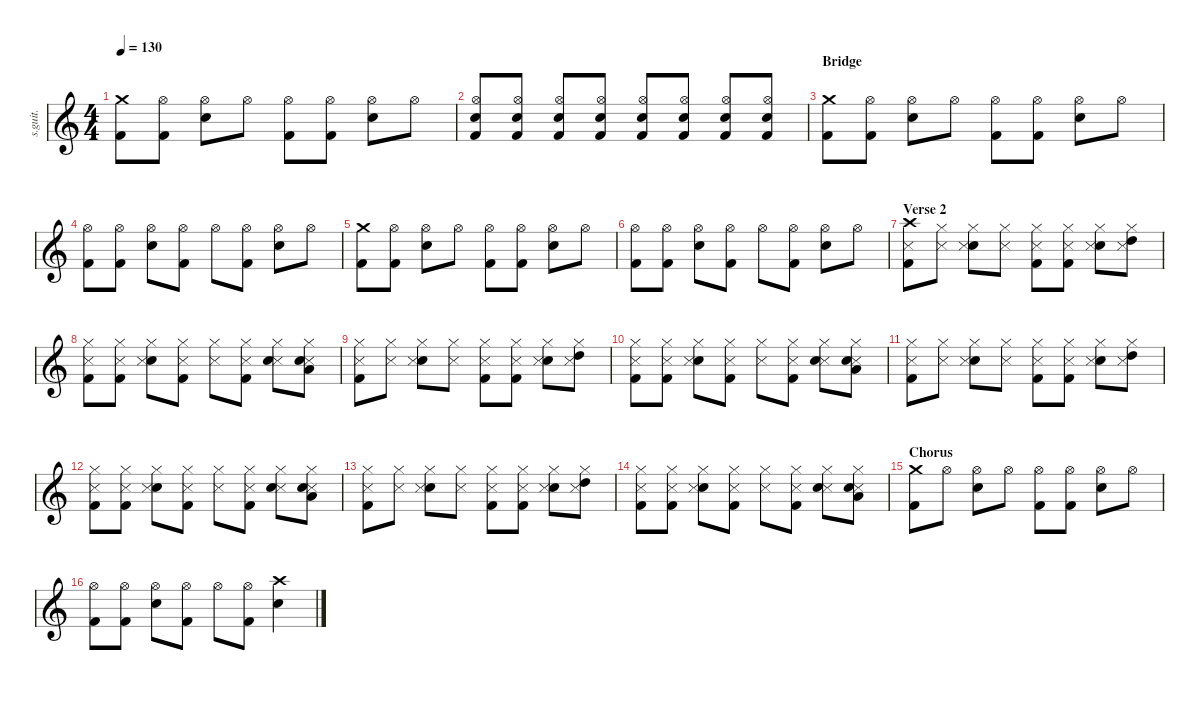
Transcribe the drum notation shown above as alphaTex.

\defaultSystemsLayout 4
\hideDynamics
\bracketExtendMode nobrackets
\track ("Rowntree & Coxon - Drums" "s.guit.") {instrument percussion}
\staff {score}
\articulation defaults
\ts (4 4)
\tempo 130
\clef g2
\ks c
("Crash medium (hit)" "Kick (hit) 2").8{lyrics (0 "") lyrics (1 "") lyrics (2 "") lyrics (3 "") lyrics (4 "") dy f} ("Hi-Hat (open)" "Kick (hit) 2").8{lyrics (0 "") lyrics (1 "") lyrics (2 "") lyrics (3 "") lyrics (4 "")} ("Snare (hit) 2" "Hi-Hat (open)").8{lyrics (0 "") lyrics (1 "") lyrics (2 "") lyrics (3 "") lyrics (4 "")} "Hi-Hat (open)".8{lyrics (0 "") lyrics (1 "") lyrics (2 "") lyrics (3 "") lyrics (4 "")} ("Hi-Hat (open)" "Kick (hit) 2").8{lyrics (0 "") lyrics (1 "") lyrics (2 "") lyrics (3 "") lyrics (4 "")} ("Hi-Hat (open)" "Kick (hit) 2").8{lyrics (0 "") lyrics (1 "") lyrics (2 "") lyrics (3 "") lyrics (4 "")} ("Snare (hit) 2" "Hi-Hat (open)").8{lyrics (0 "") lyrics (1 "") lyrics (2 "") lyrics (3 "") lyrics (4 "")} "Hi-Hat (open)".8{lyrics (0 "") lyrics (1 "") lyrics (2 "") lyrics (3 "") lyrics (4 "")} |
("Snare (hit) 2" "Hi-Hat (open)" "Kick (hit) 2").8{lyrics (0 "") lyrics (1 "") lyrics (2 "") lyrics (3 "") lyrics (4 "") dy mp} ("Snare (hit) 2" "Hi-Hat (open)" "Kick (hit) 2").8{lyrics (0 "") lyrics (1 "") lyrics (2 "") lyrics (3 "") lyrics (4 "")} ("Snare (hit) 2" "Hi-Hat (open)" "Kick (hit) 2").8{lyrics (0 "") lyrics (1 "") lyrics (2 "") lyrics (3 "") lyrics (4 "") dy mf} ("Snare (hit) 2" "Hi-Hat (open)" "Kick (hit) 2").8{lyrics (0 "") lyrics (1 "") lyrics (2 "") lyrics (3 "") lyrics (4 "")} ("Snare (hit) 2" "Hi-Hat (open)" "Kick (hit) 2").8{lyrics (0 "") lyrics (1 "") lyrics (2 "") lyrics (3 "") lyrics (4 "") dy f} ("Snare (hit) 2" "Hi-Hat (open)" "Kick (hit) 2").8{lyrics (0 "") lyrics (1 "") lyrics (2 "") lyrics (3 "") lyrics (4 "")} ("Snare (hit) 2" "Hi-Hat (open)" "Kick (hit) 2").8{lyrics (0 "") lyrics (1 "") lyrics (2 "") lyrics (3 "") lyrics (4 "") dy ff} ("Snare (hit) 2" "Hi-Hat (open)" "Kick (hit) 2").8{lyrics (0 "") lyrics (1 "") lyrics (2 "") lyrics (3 "") lyrics (4 "")} |
\section ("" "Bridge")
("Crash medium (hit)" "Kick (hit) 2").8{lyrics (0 "") lyrics (1 "") lyrics (2 "") lyrics (3 "") lyrics (4 "") dy f} ("Hi-Hat (open)" "Kick (hit) 2").8{lyrics (0 "") lyrics (1 "") lyrics (2 "") lyrics (3 "") lyrics (4 "")} ("Snare (hit) 2" "Hi-Hat (open)").8{lyrics (0 "") lyrics (1 "") lyrics (2 "") lyrics (3 "") lyrics (4 "")} "Hi-Hat (open)".8{lyrics (0 "") lyrics (1 "") lyrics (2 "") lyrics (3 "") lyrics (4 "")} ("Hi-Hat (open)" "Kick (hit) 2").8{lyrics (0 "") lyrics (1 "") lyrics (2 "") lyrics (3 "") lyrics (4 "")} ("Hi-Hat (open)" "Kick (hit) 2").8{lyrics (0 "") lyrics (1 "") lyrics (2 "") lyrics (3 "") lyrics (4 "")} ("Snare (hit) 2" "Hi-Hat (open)").8{lyrics (0 "") lyrics (1 "") lyrics (2 "") lyrics (3 "") lyrics (4 "")} "Hi-Hat (open)".8{lyrics (0 "") lyrics (1 "") lyrics (2 "") lyrics (3 "") lyrics (4 "")} |
("Hi-Hat (open)" "Kick (hit) 2").8{lyrics (0 "") lyrics (1 "") lyrics (2 "") lyrics (3 "") lyrics (4 "")} ("Hi-Hat (open)" "Kick (hit) 2").8{lyrics (0 "") lyrics (1 "") lyrics (2 "") lyrics (3 "") lyrics (4 "")} ("Snare (hit) 2" "Hi-Hat (open)").8{lyrics (0 "") lyrics (1 "") lyrics (2 "") lyrics (3 "") lyrics (4 "")} ("Hi-Hat (open)" "Kick (hit) 2").8{lyrics (0 "") lyrics (1 "") lyrics (2 "") lyrics (3 "") lyrics (4 "")} "Hi-Hat (open)".8{lyrics (0 "") lyrics (1 "") lyrics (2 "") lyrics (3 "") lyrics (4 "")} ("Hi-Hat (open)" "Kick (hit) 2").8{lyrics (0 "") lyrics (1 "") lyrics (2 "") lyrics (3 "") lyrics (4 "")} ("Snare (hit) 2" "Hi-Hat (open)").8{lyrics (0 "") lyrics (1 "") lyrics (2 "") lyrics (3 "") lyrics (4 "")} "Hi-Hat (open)".8{lyrics (0 "") lyrics (1 "") lyrics (2 "") lyrics (3 "") lyrics (4 "")} |
("Crash medium (hit)" "Kick (hit) 2").8{lyrics (0 "") lyrics (1 "") lyrics (2 "") lyrics (3 "") lyrics (4 "")} ("Hi-Hat (open)" "Kick (hit) 2").8{lyrics (0 "") lyrics (1 "") lyrics (2 "") lyrics (3 "") lyrics (4 "")} ("Snare (hit) 2" "Hi-Hat (open)").8{lyrics (0 "") lyrics (1 "") lyrics (2 "") lyrics (3 "") lyrics (4 "")} "Hi-Hat (open)".8{lyrics (0 "") lyrics (1 "") lyrics (2 "") lyrics (3 "") lyrics (4 "")} ("Hi-Hat (open)" "Kick (hit) 2").8{lyrics (0 "") lyrics (1 "") lyrics (2 "") lyrics (3 "") lyrics (4 "")} ("Hi-Hat (open)" "Kick (hit) 2").8{lyrics (0 "") lyrics (1 "") lyrics (2 "") lyrics (3 "") lyrics (4 "")} ("Snare (hit) 2" "Hi-Hat (open)").8{lyrics (0 "") lyrics (1 "") lyrics (2 "") lyrics (3 "") lyrics (4 "")} "Hi-Hat (open)".8{lyrics (0 "") lyrics (1 "") lyrics (2 "") lyrics (3 "") lyrics (4 "")} |
("Hi-Hat (open)" "Kick (hit) 2").8{lyrics (0 "") lyrics (1 "") lyrics (2 "") lyrics (3 "") lyrics (4 "")} ("Hi-Hat (open)" "Kick (hit) 2").8{lyrics (0 "") lyrics (1 "") lyrics (2 "") lyrics (3 "") lyrics (4 "")} ("Snare (hit) 2" "Hi-Hat (open)").8{lyrics (0 "") lyrics (1 "") lyrics (2 "") lyrics (3 "") lyrics (4 "")} ("Hi-Hat (open)" "Kick (hit) 2").8{lyrics (0 "") lyrics (1 "") lyrics (2 "") lyrics (3 "") lyrics (4 "")} "Hi-Hat (open)".8{lyrics (0 "") lyrics (1 "") lyrics (2 "") lyrics (3 "") lyrics (4 "")} ("Hi-Hat (open)" "Kick (hit) 2").8{lyrics (0 "") lyrics (1 "") lyrics (2 "") lyrics (3 "") lyrics (4 "")} ("Snare (hit) 2" "Hi-Hat (open)").8{lyrics (0 "") lyrics (1 "") lyrics (2 "") lyrics (3 "") lyrics (4 "")} "Hi-Hat (open)".8{lyrics (0 "") lyrics (1 "") lyrics (2 "") lyrics (3 "") lyrics (4 "")} |
\section ("" "Verse 2")
("Kick (hit) 2" "Snare (side stick) 3" "Crash high (hit)").8{lyrics (0 "") lyrics (1 "") lyrics (2 "") lyrics (3 "") lyrics (4 "")} ("Snare (side stick) 3" "Hi-Hat (closed)").8{lyrics (0 "") lyrics (1 "") lyrics (2 "") lyrics (3 "") lyrics (4 "")} ("Snare (hit) 2" "Snare (side stick) 3" "Hi-Hat (closed)").8{lyrics (0 "") lyrics (1 "") lyrics (2 "") lyrics (3 "") lyrics (4 "")} ("Snare (side stick) 3" "Hi-Hat (closed)").8{lyrics (0 "") lyrics (1 "") lyrics (2 "") lyrics (3 "") lyrics (4 "")} ("Kick (hit) 2" "Snare (side stick) 3" "Hi-Hat (closed)").8{lyrics (0 "") lyrics (1 "") lyrics (2 "") lyrics (3 "") lyrics (4 "")} ("Kick (hit) 2" "Snare (side stick) 3" "Hi-Hat (closed)").8{lyrics (0 "") lyrics (1 "") lyrics (2 "") lyrics (3 "") lyrics (4 "")} ("Snare (hit) 2" "Snare (side stick) 3" "Hi-Hat (closed)").8{lyrics (0 "") lyrics (1 "") lyrics (2 "") lyrics (3 "") lyrics (4 "")} ("High Tom (hit)" "Snare (side stick) 3" "Hi-Hat (closed)").8{lyrics (0 "") lyrics (1 "") lyrics (2 "") lyrics (3 "") lyrics (4 "")} |
("Kick (hit) 2" "Snare (side stick) 3" "Hi-Hat (closed)").8{lyrics (0 "") lyrics (1 "") lyrics (2 "") lyrics (3 "") lyrics (4 "")} ("Kick (hit) 2" "Snare (side stick) 3" "Hi-Hat (closed)").8{lyrics (0 "") lyrics (1 "") lyrics (2 "") lyrics (3 "") lyrics (4 "")} ("Snare (hit) 2" "Snare (side stick) 3" "Hi-Hat (closed)").8{lyrics (0 "") lyrics (1 "") lyrics (2 "") lyrics (3 "") lyrics (4 "")} ("Kick (hit) 2" "Snare (side stick) 3" "Hi-Hat (closed)").8{lyrics (0 "") lyrics (1 "") lyrics (2 "") lyrics (3 "") lyrics (4 "")} ("Snare (side stick) 3" "Hi-Hat (closed)").8{lyrics (0 "") lyrics (1 "") lyrics (2 "") lyrics (3 "") lyrics (4 "")} ("Kick (hit) 2" "Snare (side stick) 3" "Hi-Hat (closed)").8{lyrics (0 "") lyrics (1 "") lyrics (2 "") lyrics (3 "") lyrics (4 "")} ("Snare (side stick) 3" "Snare (hit) 2" "Hi-Hat (closed)").8{lyrics (0 "") lyrics (1 "") lyrics (2 "") lyrics (3 "") lyrics (4 "")} ("Snare (side stick) 3" "Snare (hit) 2" "Low Floor Tom (hit)" "Hi-Hat (closed)").8{lyrics (0 "") lyrics (1 "") lyrics (2 "") lyrics (3 "") lyrics (4 "")} |
("Kick (hit) 2" "Snare (side stick) 3" "Hi-Hat (closed)").8{lyrics (0 "") lyrics (1 "") lyrics (2 "") lyrics (3 "") lyrics (4 "")} ("Snare (side stick) 3" "Hi-Hat (closed)").8{lyrics (0 "") lyrics (1 "") lyrics (2 "") lyrics (3 "") lyrics (4 "")} ("Snare (hit) 2" "Snare (side stick) 3" "Hi-Hat (closed)").8{lyrics (0 "") lyrics (1 "") lyrics (2 "") lyrics (3 "") lyrics (4 "")} ("Snare (side stick) 3" "Hi-Hat (closed)").8{lyrics (0 "") lyrics (1 "") lyrics (2 "") lyrics (3 "") lyrics (4 "")} ("Kick (hit) 2" "Snare (side stick) 3" "Hi-Hat (closed)").8{lyrics (0 "") lyrics (1 "") lyrics (2 "") lyrics (3 "") lyrics (4 "")} ("Kick (hit) 2" "Snare (side stick) 3" "Hi-Hat (closed)").8{lyrics (0 "") lyrics (1 "") lyrics (2 "") lyrics (3 "") lyrics (4 "")} ("Snare (hit) 2" "Snare (side stick) 3" "Hi-Hat (closed)").8{lyrics (0 "") lyrics (1 "") lyrics (2 "") lyrics (3 "") lyrics (4 "")} ("High Tom (hit)" "Snare (side stick) 3" "Hi-Hat (closed)").8{lyrics (0 "") lyrics (1 "") lyrics (2 "") lyrics (3 "") lyrics (4 "")} |
("Kick (hit) 2" "Snare (side stick) 3" "Hi-Hat (closed)").8{lyrics (0 "") lyrics (1 "") lyrics (2 "") lyrics (3 "") lyrics (4 "")} ("Kick (hit) 2" "Snare (side stick) 3" "Hi-Hat (closed)").8{lyrics (0 "") lyrics (1 "") lyrics (2 "") lyrics (3 "") lyrics (4 "")} ("Snare (hit) 2" "Snare (side stick) 3" "Hi-Hat (closed)").8{lyrics (0 "") lyrics (1 "") lyrics (2 "") lyrics (3 "") lyrics (4 "")} ("Kick (hit) 2" "Snare (side stick) 3" "Hi-Hat (closed)").8{lyrics (0 "") lyrics (1 "") lyrics (2 "") lyrics (3 "") lyrics (4 "")} ("Snare (side stick) 3" "Hi-Hat (closed)").8{lyrics (0 "") lyrics (1 "") lyrics (2 "") lyrics (3 "") lyrics (4 "")} ("Kick (hit) 2" "Snare (side stick) 3" "Hi-Hat (closed)").8{lyrics (0 "") lyrics (1 "") lyrics (2 "") lyrics (3 "") lyrics (4 "")} ("Snare (side stick) 3" "Snare (hit) 2" "Hi-Hat (closed)").8{lyrics (0 "") lyrics (1 "") lyrics (2 "") lyrics (3 "") lyrics (4 "")} ("Snare (side stick) 3" "Snare (hit) 2" "Low Floor Tom (hit)" "Hi-Hat (closed)").8{lyrics (0 "") lyrics (1 "") lyrics (2 "") lyrics (3 "") lyrics (4 "")} |
("Kick (hit) 2" "Snare (side stick) 3" "Hi-Hat (closed)").8{lyrics (0 "") lyrics (1 "") lyrics (2 "") lyrics (3 "") lyrics (4 "")} ("Snare (side stick) 3" "Hi-Hat (closed)").8{lyrics (0 "") lyrics (1 "") lyrics (2 "") lyrics (3 "") lyrics (4 "")} ("Snare (hit) 2" "Snare (side stick) 3" "Hi-Hat (closed)").8{lyrics (0 "") lyrics (1 "") lyrics (2 "") lyrics (3 "") lyrics (4 "")} ("Snare (side stick) 3" "Hi-Hat (closed)").8{lyrics (0 "") lyrics (1 "") lyrics (2 "") lyrics (3 "") lyrics (4 "")} ("Kick (hit) 2" "Snare (side stick) 3" "Hi-Hat (closed)").8{lyrics (0 "") lyrics (1 "") lyrics (2 "") lyrics (3 "") lyrics (4 "")} ("Kick (hit) 2" "Snare (side stick) 3" "Hi-Hat (closed)").8{lyrics (0 "") lyrics (1 "") lyrics (2 "") lyrics (3 "") lyrics (4 "")} ("Snare (hit) 2" "Snare (side stick) 3" "Hi-Hat (closed)").8{lyrics (0 "") lyrics (1 "") lyrics (2 "") lyrics (3 "") lyrics (4 "")} ("Snare (side stick) 3" "Hi-Hat (closed)" "High Tom (hit)").8{lyrics (0 "") lyrics (1 "") lyrics (2 "") lyrics (3 "") lyrics (4 "")} |
("Kick (hit) 2" "Snare (side stick) 3" "Hi-Hat (closed)").8{lyrics (0 "") lyrics (1 "") lyrics (2 "") lyrics (3 "") lyrics (4 "")} ("Kick (hit) 2" "Snare (side stick) 3" "Hi-Hat (closed)").8{lyrics (0 "") lyrics (1 "") lyrics (2 "") lyrics (3 "") lyrics (4 "")} ("Snare (hit) 2" "Snare (side stick) 3" "Hi-Hat (closed)").8{lyrics (0 "") lyrics (1 "") lyrics (2 "") lyrics (3 "") lyrics (4 "")} ("Kick (hit) 2" "Snare (side stick) 3" "Hi-Hat (closed)").8{lyrics (0 "") lyrics (1 "") lyrics (2 "") lyrics (3 "") lyrics (4 "")} ("Snare (side stick) 3" "Hi-Hat (closed)").8{lyrics (0 "") lyrics (1 "") lyrics (2 "") lyrics (3 "") lyrics (4 "")} ("Kick (hit) 2" "Snare (side stick) 3" "Hi-Hat (closed)").8{lyrics (0 "") lyrics (1 "") lyrics (2 "") lyrics (3 "") lyrics (4 "")} ("Snare (side stick) 3" "Snare (hit) 2" "Hi-Hat (closed)").8{lyrics (0 "") lyrics (1 "") lyrics (2 "") lyrics (3 "") lyrics (4 "")} ("Snare (side stick) 3" "Snare (hit) 2" "Low Floor Tom (hit)" "Hi-Hat (closed)").8{lyrics (0 "") lyrics (1 "") lyrics (2 "") lyrics (3 "") lyrics (4 "")} |
("Kick (hit) 2" "Snare (side stick) 3" "Hi-Hat (closed)").8{lyrics (0 "") lyrics (1 "") lyrics (2 "") lyrics (3 "") lyrics (4 "")} ("Snare (side stick) 3" "Hi-Hat (closed)").8{lyrics (0 "") lyrics (1 "") lyrics (2 "") lyrics (3 "") lyrics (4 "")} ("Snare (hit) 2" "Snare (side stick) 3" "Hi-Hat (closed)").8{lyrics (0 "") lyrics (1 "") lyrics (2 "") lyrics (3 "") lyrics (4 "")} ("Snare (side stick) 3" "Hi-Hat (closed)").8{lyrics (0 "") lyrics (1 "") lyrics (2 "") lyrics (3 "") lyrics (4 "")} ("Kick (hit) 2" "Snare (side stick) 3" "Hi-Hat (closed)").8{lyrics (0 "") lyrics (1 "") lyrics (2 "") lyrics (3 "") lyrics (4 "")} ("Kick (hit) 2" "Snare (side stick) 3" "Hi-Hat (closed)").8{lyrics (0 "") lyrics (1 "") lyrics (2 "") lyrics (3 "") lyrics (4 "")} ("Snare (hit) 2" "Snare (side stick) 3" "Hi-Hat (closed)").8{lyrics (0 "") lyrics (1 "") lyrics (2 "") lyrics (3 "") lyrics (4 "")} ("High Tom (hit)" "Snare (side stick) 3" "Hi-Hat (closed)").8{lyrics (0 "") lyrics (1 "") lyrics (2 "") lyrics (3 "") lyrics (4 "")} |
("Kick (hit) 2" "Snare (side stick) 3" "Hi-Hat (closed)").8{lyrics (0 "") lyrics (1 "") lyrics (2 "") lyrics (3 "") lyrics (4 "")} ("Kick (hit) 2" "Snare (side stick) 3" "Hi-Hat (closed)").8{lyrics (0 "") lyrics (1 "") lyrics (2 "") lyrics (3 "") lyrics (4 "")} ("Snare (hit) 2" "Snare (side stick) 3" "Hi-Hat (closed)").8{lyrics (0 "") lyrics (1 "") lyrics (2 "") lyrics (3 "") lyrics (4 "")} ("Kick (hit) 2" "Snare (side stick) 3" "Hi-Hat (closed)").8{lyrics (0 "") lyrics (1 "") lyrics (2 "") lyrics (3 "") lyrics (4 "")} ("Snare (side stick) 3" "Hi-Hat (closed)").8{lyrics (0 "") lyrics (1 "") lyrics (2 "") lyrics (3 "") lyrics (4 "")} ("Kick (hit) 2" "Snare (side stick) 3" "Hi-Hat (closed)").8{lyrics (0 "") lyrics (1 "") lyrics (2 "") lyrics (3 "") lyrics (4 "")} ("Snare (side stick) 3" "Snare (hit) 2" "Hi-Hat (closed)").8{lyrics (0 "") lyrics (1 "") lyrics (2 "") lyrics (3 "") lyrics (4 "")} ("Snare (side stick) 3" "Snare (hit) 2" "Low Floor Tom (hit)" "Hi-Hat (closed)").8{lyrics (0 "") lyrics (1 "") lyrics (2 "") lyrics (3 "") lyrics (4 "")} |
\section ("" "Chorus")
("Crash medium (hit)" "Kick (hit) 2").8{lyrics (0 "") lyrics (1 "") lyrics (2 "") lyrics (3 "") lyrics (4 "")} "Hi-Hat (open)".8{lyrics (0 "") lyrics (1 "") lyrics (2 "") lyrics (3 "") lyrics (4 "")} ("Snare (hit) 2" "Hi-Hat (open)").8{lyrics (0 "") lyrics (1 "") lyrics (2 "") lyrics (3 "") lyrics (4 "")} "Hi-Hat (open)".8{lyrics (0 "") lyrics (1 "") lyrics (2 "") lyrics (3 "") lyrics (4 "")} ("Hi-Hat (open)" "Kick (hit) 2").8{lyrics (0 "") lyrics (1 "") lyrics (2 "") lyrics (3 "") lyrics (4 "")} ("Hi-Hat (open)" "Kick (hit) 2").8{lyrics (0 "") lyrics (1 "") lyrics (2 "") lyrics (3 "") lyrics (4 "")} ("Snare (hit) 2" "Hi-Hat (open)").8{lyrics (0 "") lyrics (1 "") lyrics (2 "") lyrics (3 "") lyrics (4 "")} "Hi-Hat (open)".8{lyrics (0 "") lyrics (1 "") lyrics (2 "") lyrics (3 "") lyrics (4 "")} |
("Hi-Hat (open)" "Kick (hit) 2").8{lyrics (0 "") lyrics (1 "") lyrics (2 "") lyrics (3 "") lyrics (4 "")} ("Hi-Hat (open)" "Kick (hit) 2").8{lyrics (0 "") lyrics (1 "") lyrics (2 "") lyrics (3 "") lyrics (4 "")} ("Snare (hit) 2" "Hi-Hat (open)").8{lyrics (0 "") lyrics (1 "") lyrics (2 "") lyrics (3 "") lyrics (4 "")} ("Hi-Hat (open)" "Kick (hit) 2").8{lyrics (0 "") lyrics (1 "") lyrics (2 "") lyrics (3 "") lyrics (4 "")} "Hi-Hat (open)".8{lyrics (0 "") lyrics (1 "") lyrics (2 "") lyrics (3 "") lyrics (4 "")} ("Hi-Hat (open)" "Kick (hit) 2").8{lyrics (0 "") lyrics (1 "") lyrics (2 "") lyrics (3 "") lyrics (4 "")} ("Snare (hit) 2" "Crash high (hit)").4{lyrics (0 "") lyrics (1 "") lyrics (2 "") lyrics (3 "") lyrics (4 "")}
